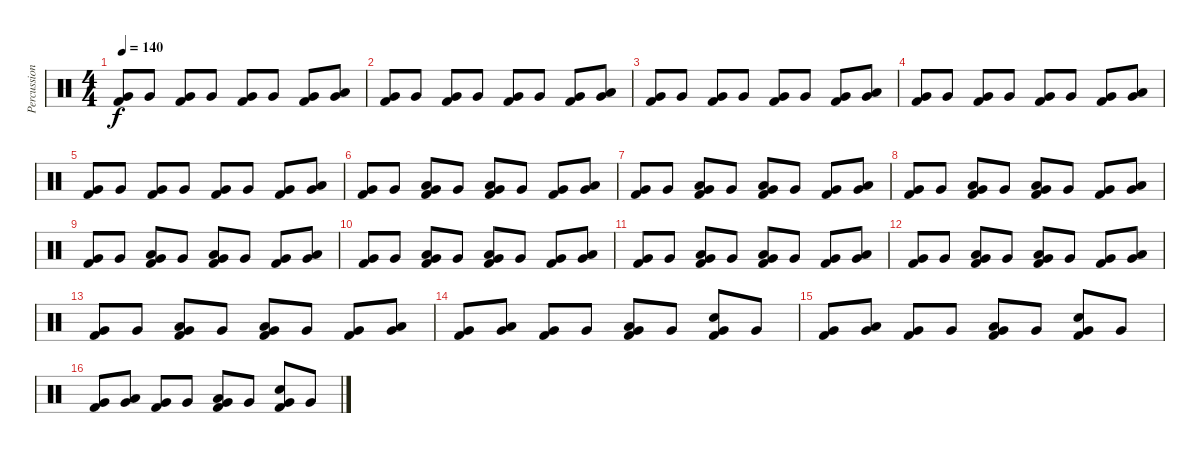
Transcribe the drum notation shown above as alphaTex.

\track ("Percussion" "Percussion") {instrument percussion}
\staff {score}
\articulation defaults
\ts (4 4)
\tempo 140
\clef neutral
\ks c
("Very Low Tom (hit)" "Kick (hit) 2").8{dy f} "Very Low Tom (hit)".8 ("Very Low Tom (hit)" "Kick (hit) 2").8 "Very Low Tom (hit)".8 ("Very Low Tom (hit)" "Kick (hit) 2").8 "Very Low Tom (hit)".8 ("Very Low Tom (hit)" "Kick (hit) 2").8 ("Low Tom (hit)" "Very Low Tom (hit)").8 |
("Very Low Tom (hit)" "Kick (hit) 2").8 "Very Low Tom (hit)".8 ("Very Low Tom (hit)" "Kick (hit) 2").8 "Very Low Tom (hit)".8 ("Very Low Tom (hit)" "Kick (hit) 2").8 "Very Low Tom (hit)".8 ("Very Low Tom (hit)" "Kick (hit) 2").8 ("Low Tom (hit)" "Very Low Tom (hit)").8 |
("Very Low Tom (hit)" "Kick (hit) 2").8 "Very Low Tom (hit)".8 ("Very Low Tom (hit)" "Kick (hit) 2").8 "Very Low Tom (hit)".8 ("Very Low Tom (hit)" "Kick (hit) 2").8 "Very Low Tom (hit)".8 ("Very Low Tom (hit)" "Kick (hit) 2").8 ("Low Tom (hit)" "Very Low Tom (hit)").8 |
("Very Low Tom (hit)" "Kick (hit) 2").8 "Very Low Tom (hit)".8 ("Very Low Tom (hit)" "Kick (hit) 2").8 "Very Low Tom (hit)".8 ("Very Low Tom (hit)" "Kick (hit) 2").8 "Very Low Tom (hit)".8 ("Very Low Tom (hit)" "Kick (hit) 2").8 ("Low Tom (hit)" "Very Low Tom (hit)").8 |
("Very Low Tom (hit)" "Kick (hit) 2").8 "Very Low Tom (hit)".8 ("Very Low Tom (hit)" "Kick (hit) 2").8 "Very Low Tom (hit)".8 ("Very Low Tom (hit)" "Kick (hit) 2").8 "Very Low Tom (hit)".8 ("Very Low Tom (hit)" "Kick (hit) 2").8 ("Low Tom (hit)" "Very Low Tom (hit)").8 |
("Very Low Tom (hit)" "Kick (hit) 2").8 "Very Low Tom (hit)".8 ("Low Tom (hit)" "Very Low Tom (hit)" "Kick (hit) 2").8 "Very Low Tom (hit)".8 ("Low Tom (hit)" "Very Low Tom (hit)" "Kick (hit) 2").8 "Very Low Tom (hit)".8 ("Very Low Tom (hit)" "Kick (hit) 2").8 ("Low Tom (hit)" "Very Low Tom (hit)").8 |
("Very Low Tom (hit)" "Kick (hit) 2").8 "Very Low Tom (hit)".8 ("Low Tom (hit)" "Very Low Tom (hit)" "Kick (hit) 2").8 "Very Low Tom (hit)".8 ("Low Tom (hit)" "Very Low Tom (hit)" "Kick (hit) 2").8 "Very Low Tom (hit)".8 ("Very Low Tom (hit)" "Kick (hit) 2").8 ("Low Tom (hit)" "Very Low Tom (hit)").8 |
("Very Low Tom (hit)" "Kick (hit) 2").8 "Very Low Tom (hit)".8 ("Low Tom (hit)" "Very Low Tom (hit)" "Kick (hit) 2").8 "Very Low Tom (hit)".8 ("Low Tom (hit)" "Very Low Tom (hit)" "Kick (hit) 2").8 "Very Low Tom (hit)".8 ("Very Low Tom (hit)" "Kick (hit) 2").8 ("Low Tom (hit)" "Very Low Tom (hit)").8 |
("Very Low Tom (hit)" "Kick (hit) 2").8 "Very Low Tom (hit)".8 ("Low Tom (hit)" "Very Low Tom (hit)" "Kick (hit) 2").8 "Very Low Tom (hit)".8 ("Low Tom (hit)" "Very Low Tom (hit)" "Kick (hit) 2").8 "Very Low Tom (hit)".8 ("Very Low Tom (hit)" "Kick (hit) 2").8 ("Low Tom (hit)" "Very Low Tom (hit)").8 |
("Very Low Tom (hit)" "Kick (hit) 2").8 "Very Low Tom (hit)".8 ("Low Tom (hit)" "Very Low Tom (hit)" "Kick (hit) 2").8 "Very Low Tom (hit)".8 ("Low Tom (hit)" "Very Low Tom (hit)" "Kick (hit) 2").8 "Very Low Tom (hit)".8 ("Very Low Tom (hit)" "Kick (hit) 2").8 ("Low Tom (hit)" "Very Low Tom (hit)").8 |
("Very Low Tom (hit)" "Kick (hit) 2").8 "Very Low Tom (hit)".8 ("Low Tom (hit)" "Very Low Tom (hit)" "Kick (hit) 2").8 "Very Low Tom (hit)".8 ("Low Tom (hit)" "Very Low Tom (hit)" "Kick (hit) 2").8 "Very Low Tom (hit)".8 ("Very Low Tom (hit)" "Kick (hit) 2").8 ("Low Tom (hit)" "Very Low Tom (hit)").8 |
("Very Low Tom (hit)" "Kick (hit) 2").8 "Very Low Tom (hit)".8 ("Low Tom (hit)" "Very Low Tom (hit)" "Kick (hit) 2").8 "Very Low Tom (hit)".8 ("Low Tom (hit)" "Very Low Tom (hit)" "Kick (hit) 2").8 "Very Low Tom (hit)".8 ("Very Low Tom (hit)" "Kick (hit) 2").8 ("Low Tom (hit)" "Very Low Tom (hit)").8 |
("Very Low Tom (hit)" "Kick (hit) 2").8 "Very Low Tom (hit)".8 ("Low Tom (hit)" "Very Low Tom (hit)" "Kick (hit) 2").8 "Very Low Tom (hit)".8 ("Low Tom (hit)" "Very Low Tom (hit)" "Kick (hit) 2").8 "Very Low Tom (hit)".8 ("Very Low Tom (hit)" "Kick (hit) 2").8 ("Low Tom (hit)" "Very Low Tom (hit)").8 |
("Very Low Tom (hit)" "Kick (hit) 2").8 ("Low Tom (hit)" "Very Low Tom (hit)").8 ("Very Low Tom (hit)" "Kick (hit) 2").8 "Very Low Tom (hit)".8 ("Low Tom (hit)" "Very Low Tom (hit)" "Kick (hit) 2").8 "Very Low Tom (hit)".8 ("Very Low Tom (hit)" "Electric Snare (hit)" "Kick (hit) 2").8 "Very Low Tom (hit)".8 |
("Very Low Tom (hit)" "Kick (hit) 2").8 ("Low Tom (hit)" "Very Low Tom (hit)").8 ("Very Low Tom (hit)" "Kick (hit) 2").8 "Very Low Tom (hit)".8 ("Low Tom (hit)" "Very Low Tom (hit)" "Kick (hit) 2").8 "Very Low Tom (hit)".8 ("Very Low Tom (hit)" "Electric Snare (hit)" "Kick (hit) 2").8 "Very Low Tom (hit)".8 |
("Very Low Tom (hit)" "Kick (hit) 2").8 ("Low Tom (hit)" "Very Low Tom (hit)").8 ("Very Low Tom (hit)" "Kick (hit) 2").8 "Very Low Tom (hit)".8 ("Low Tom (hit)" "Very Low Tom (hit)" "Kick (hit) 2").8 "Very Low Tom (hit)".8 ("Very Low Tom (hit)" "Electric Snare (hit)" "Kick (hit) 2").8 "Very Low Tom (hit)".8
